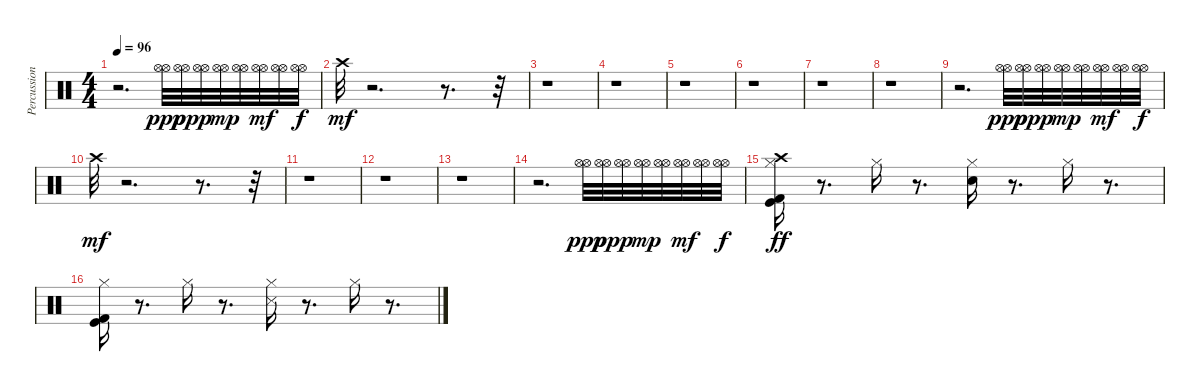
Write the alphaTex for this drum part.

\track ("Percussion" "Percussion") {instrument percussion}
\staff {score}
\articulation defaults
\ts (4 4)
\tempo 96
\clef neutral
\ks c
r.2{d dy mf} ("Hi-Hat (open)" "Hi-Hat (open)").32{dy ppp} ("Hi-Hat (open)" "Hi-Hat (open)").32{dy pp} ("Hi-Hat (open)" "Hi-Hat (open)").32{dy p} ("Hi-Hat (open)" "Hi-Hat (open)").32{dy mp} ("Hi-Hat (open)" "Hi-Hat (open)").32 ("Hi-Hat (open)" "Hi-Hat (open)").32{dy mf} ("Hi-Hat (open)" "Hi-Hat (open)").32 ("Hi-Hat (open)" "Hi-Hat (open)").32{dy f} |
"Crash high (hit)".32{dy mf} r.2{d} r.8{d} r.32 |
r.1 |
r.1 |
r.1 |
r.1 |
r.1 |
r.1 |
r.2{d} ("Hi-Hat (open)" "Hi-Hat (open)").32{dy ppp} ("Hi-Hat (open)" "Hi-Hat (open)").32{dy pp} ("Hi-Hat (open)" "Hi-Hat (open)").32{dy p} ("Hi-Hat (open)" "Hi-Hat (open)").32{dy mp} ("Hi-Hat (open)" "Hi-Hat (open)").32 ("Hi-Hat (open)" "Hi-Hat (open)").32{dy mf} ("Hi-Hat (open)" "Hi-Hat (open)").32 ("Hi-Hat (open)" "Hi-Hat (open)").32{dy f} |
"Crash high (hit)".32{dy mf} r.2{d} r.8{d} r.32 |
r.1 |
r.1 |
r.1 |
r.2{d} ("Hi-Hat (open)" "Hi-Hat (open)").32{dy ppp} ("Hi-Hat (open)" "Hi-Hat (open)").32{dy pp} ("Hi-Hat (open)" "Hi-Hat (open)").32{dy p} ("Hi-Hat (open)" "Hi-Hat (open)").32{dy mp} ("Hi-Hat (open)" "Hi-Hat (open)").32 ("Hi-Hat (open)" "Hi-Hat (open)").32{dy mf} ("Hi-Hat (open)" "Hi-Hat (open)").32 ("Hi-Hat (open)" "Hi-Hat (open)").32{dy f} |
("Hi-Hat (closed)" "Crash high (hit)" "Kick (hit)" "Kick (hit) 2").16{dy ff} r.8{d} "Hi-Hat (closed)".16 r.8{d} ("Electric Snare (hit)" "Hi-Hat (closed)").16 r.8{d} "Hi-Hat (closed)".16 r.8{d} |
("Hi-Hat (closed)" "Kick (hit) 2" "Kick (hit)").16 r.8{d} "Hi-Hat (closed)".16 r.8{d} ("Snare (side stick) 3" "Hi-Hat (closed)").16 r.8{d} "Hi-Hat (closed)".16 r.8{d}
